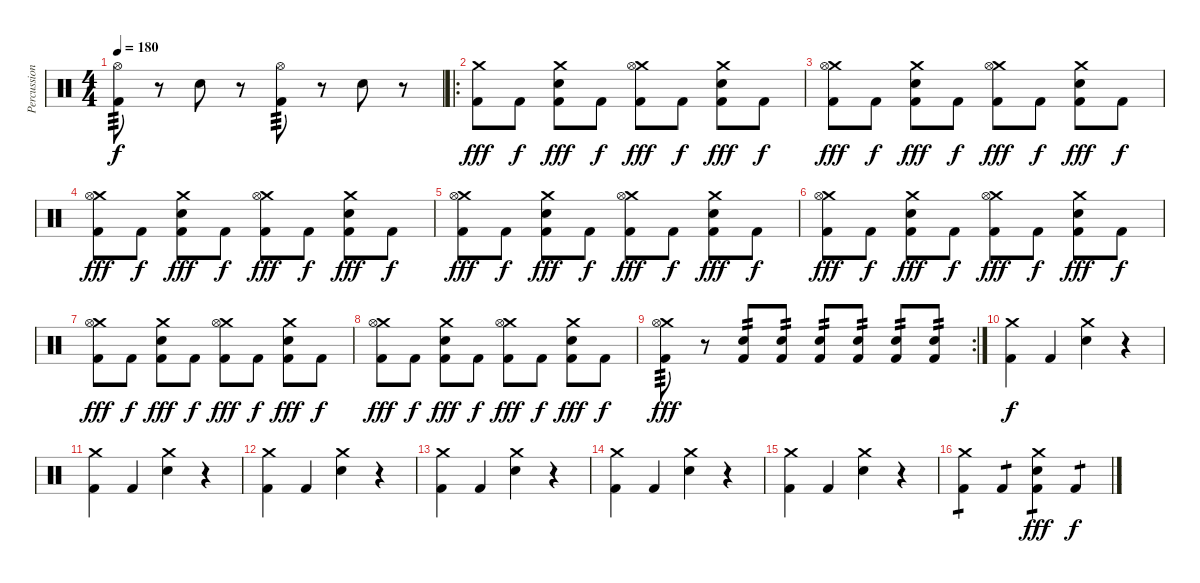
\track ("Percussion" "Percussion") {instrument percussion}
\staff {score}
\articulation defaults
\ts (4 4)
\tempo 180
\clef neutral
\ks c
("Hi-Hat (open)" "Kick (hit) 2").8{tp 3 dy f} r.8 "Electric Snare (hit)".8 r.8 ("Hi-Hat (open)" "Kick (hit) 2").8{tp 3} r.8 "Electric Snare (hit)".8 r.8 |
\ro
("Crash medium (hit)" "Kick (hit) 2").8{dy fff} "Kick (hit) 2".8{dy f} ("Crash medium (hit)" "Electric Snare (hit)" "Kick (hit) 2").8{dy fff} "Kick (hit) 2".8{dy f} ("Crash medium (hit)" "Hi-Hat (open)" "Kick (hit) 2").8{dy fff} "Kick (hit) 2".8{dy f} ("Crash medium (hit)" "Electric Snare (hit)" "Kick (hit) 2").8{dy fff} "Kick (hit) 2".8{dy f} |
("Crash medium (hit)" "Hi-Hat (open)" "Kick (hit) 2").8{dy fff} "Kick (hit) 2".8{dy f} ("Crash medium (hit)" "Electric Snare (hit)" "Kick (hit) 2").8{dy fff} "Kick (hit) 2".8{dy f} ("Crash medium (hit)" "Hi-Hat (open)" "Kick (hit) 2").8{dy fff} "Kick (hit) 2".8{dy f} ("Crash medium (hit)" "Electric Snare (hit)" "Kick (hit) 2").8{dy fff} "Kick (hit) 2".8{dy f} |
("Crash medium (hit)" "Hi-Hat (open)" "Kick (hit) 2").8{dy fff} "Kick (hit) 2".8{dy f} ("Crash medium (hit)" "Electric Snare (hit)" "Kick (hit) 2").8{dy fff} "Kick (hit) 2".8{dy f} ("Crash medium (hit)" "Hi-Hat (open)" "Kick (hit) 2").8{dy fff} "Kick (hit) 2".8{dy f} ("Crash medium (hit)" "Electric Snare (hit)" "Kick (hit) 2").8{dy fff} "Kick (hit) 2".8{dy f} |
("Crash medium (hit)" "Hi-Hat (open)" "Kick (hit) 2").8{dy fff} "Kick (hit) 2".8{dy f} ("Crash medium (hit)" "Electric Snare (hit)" "Kick (hit) 2").8{dy fff} "Kick (hit) 2".8{dy f} ("Crash medium (hit)" "Hi-Hat (open)" "Kick (hit) 2").8{dy fff} "Kick (hit) 2".8{dy f} ("Crash medium (hit)" "Electric Snare (hit)" "Kick (hit) 2").8{dy fff} "Kick (hit) 2".8{dy f} |
("Crash medium (hit)" "Hi-Hat (open)" "Kick (hit) 2").8{dy fff} "Kick (hit) 2".8{dy f} ("Crash medium (hit)" "Electric Snare (hit)" "Kick (hit) 2").8{dy fff} "Kick (hit) 2".8{dy f} ("Crash medium (hit)" "Hi-Hat (open)" "Kick (hit) 2").8{dy fff} "Kick (hit) 2".8{dy f} ("Crash medium (hit)" "Electric Snare (hit)" "Kick (hit) 2").8{dy fff} "Kick (hit) 2".8{dy f} |
("Crash medium (hit)" "Hi-Hat (open)" "Kick (hit) 2").8{dy fff} "Kick (hit) 2".8{dy f} ("Crash medium (hit)" "Electric Snare (hit)" "Kick (hit) 2").8{dy fff} "Kick (hit) 2".8{dy f} ("Crash medium (hit)" "Hi-Hat (open)" "Kick (hit) 2").8{dy fff} "Kick (hit) 2".8{dy f} ("Crash medium (hit)" "Electric Snare (hit)" "Kick (hit) 2").8{dy fff} "Kick (hit) 2".8{dy f} |
("Crash medium (hit)" "Hi-Hat (open)" "Kick (hit) 2").8{dy fff} "Kick (hit) 2".8{dy f} ("Crash medium (hit)" "Electric Snare (hit)" "Kick (hit) 2").8{dy fff} "Kick (hit) 2".8{dy f} ("Crash medium (hit)" "Hi-Hat (open)" "Kick (hit) 2").8{dy fff} "Kick (hit) 2".8{dy f} ("Crash medium (hit)" "Electric Snare (hit)" "Kick (hit) 2").8{dy fff} "Kick (hit) 2".8{dy f} |
\rc 2
("Crash medium (hit)" "Hi-Hat (open)" "Kick (hit) 2").8{tp 3 dy fff} r.8 ("Electric Snare (hit)" "Kick (hit) 2").8{tp 2} ("Electric Snare (hit)" "Kick (hit) 2").8{tp 2} ("Electric Snare (hit)" "Kick (hit) 2").8{tp 2} ("Electric Snare (hit)" "Kick (hit) 2").8{tp 2} ("Electric Snare (hit)" "Kick (hit) 2").8{tp 2} ("Electric Snare (hit)" "Kick (hit) 2").8{tp 2} |
("Crash medium (hit)" "Kick (hit) 2").4{dy f} "Kick (hit) 2".4 ("Crash medium (hit)" "Electric Snare (hit)").4 r.4 |
("Crash medium (hit)" "Kick (hit) 2").4 "Kick (hit) 2".4 ("Crash medium (hit)" "Electric Snare (hit)").4 r.4 |
("Crash medium (hit)" "Kick (hit) 2").4 "Kick (hit) 2".4 ("Crash medium (hit)" "Electric Snare (hit)").4 r.4 |
("Crash medium (hit)" "Kick (hit) 2").4 "Kick (hit) 2".4 ("Crash medium (hit)" "Electric Snare (hit)").4 r.4 |
("Crash medium (hit)" "Kick (hit) 2").4 "Kick (hit) 2".4 ("Crash medium (hit)" "Electric Snare (hit)").4 r.4 |
("Crash medium (hit)" "Kick (hit) 2").4 "Kick (hit) 2".4 ("Crash medium (hit)" "Electric Snare (hit)").4 r.4 |
("Crash medium (hit)" "Kick (hit) 2").4{tp 1} "Kick (hit) 2".4{tp 1} ("Crash medium (hit)" "Electric Snare (hit)" "Kick (hit) 2").4{tp 1 dy fff} "Kick (hit) 2".4{tp 1 dy f}
